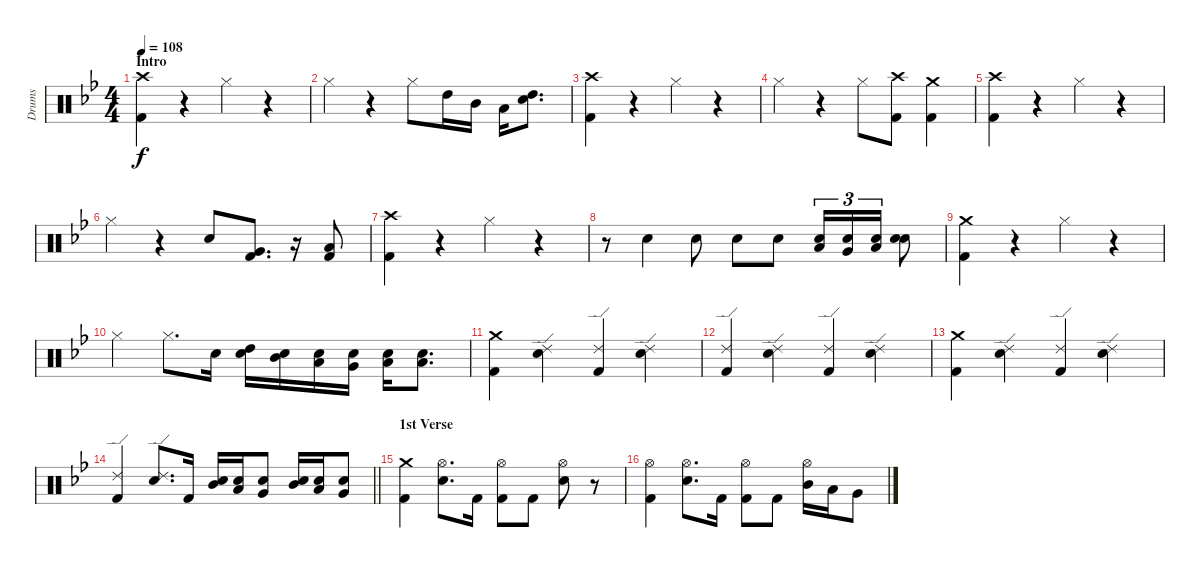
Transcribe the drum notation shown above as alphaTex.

\track ("Drums" "Drums") {instrument percussion}
\staff {score}
\articulation defaults
\ts (4 4)
\section ("" "Intro")
\tempo 108
\clef neutral
\ks gminor
("Crash high (hit)" "Kick (hit) 2").4{dy f} r.4 "Hi-Hat (closed)".4 r.4 |
"Hi-Hat (closed)".4 r.4 "Hi-Hat (closed)".8 "High Tom (hit)".16 "Mid Tom (hit)".16 "Low Tom (hit)".16 ("Snare (hit) 2" "High Tom (hit)").8{d} |
("Crash high (hit)" "Kick (hit) 2").4 r.4 "Hi-Hat (closed)".4 r.4 |
"Hi-Hat (closed)".4 r.4 "Hi-Hat (closed)".8 ("Crash high (hit)" "Kick (hit) 2").8 ("Crash medium (hit)" "Kick (hit) 2").4 |
("Crash high (hit)" "Kick (hit) 2").4 r.4 "Hi-Hat (closed)".4 r.4 |
"Hi-Hat (closed)".4 r.4 "Snare (hit) 2".8 ("Very Low Tom (hit)" "Kick (hit) 2").8{d} r.16 ("Low Floor Tom (hit)" "Kick (hit) 2").8 |
("Crash high (hit)" "Kick (hit) 2").4 r.4 "Hi-Hat (closed)".4 r.4 |
r.8 "Snare (hit) 2".4 "Snare (hit) 2".8 "Snare (hit) 2".8 "Snare (hit) 2".8 ("Snare (hit) 2" "Low Tom (hit)").16{tu (3 2)} ("Snare (hit) 2" "Very Low Tom (hit)").16{tu (3 2)} ("Snare (hit) 2" "Low Floor Tom (hit)").16{tu (3 2)} ("Snare (hit) 2" "Snare (hit) 2").8 |
("Crash medium (hit)" "Kick (hit) 2").4 r.4 "Hi-Hat (closed)".4 r.4 |
"Hi-Hat (closed)".4 "Hi-Hat (closed)".8{d} "Snare (hit) 2".16 ("Snare (hit) 2" "High Tom (hit)").16 ("Snare (hit) 2" "Mid Tom (hit)").16 ("Snare (hit) 2" "Low Tom (hit)").16 ("Snare (hit) 2" "Very Low Tom (hit)").16 ("Snare (hit) 2" "Low Floor Tom (hit)").16 ("Snare (hit) 2" "Low Floor Tom (hit)").8{d} |
("Crash medium (hit)" "Kick (hit) 2").4 ("Ride (edge) 2" "Snare (hit) 2").4 ("Ride (edge) 2" "Kick (hit) 2").4 ("Ride (edge) 2" "Snare (hit) 2").4 |
("Ride (edge) 2" "Kick (hit) 2").4 ("Ride (edge) 2" "Snare (hit) 2").4 ("Ride (edge) 2" "Kick (hit) 2").4 ("Ride (edge) 2" "Snare (hit) 2").4 |
("Crash medium (hit)" "Kick (hit) 2").4 ("Ride (edge) 2" "Snare (hit) 2").4 ("Ride (edge) 2" "Kick (hit) 2").4 ("Ride (edge) 2" "Snare (hit) 2").4 |
\barLineRight lightlight
("Ride (edge) 2" "Kick (hit) 2").4 ("Ride (edge) 2" "Snare (hit) 2").8{d} "Kick (hit) 2".16 ("Snare (hit) 2" "Mid Tom (hit)").16 ("Snare (hit) 2" "Low Tom (hit)").16 ("Snare (hit) 2" "Very Low Tom (hit)").8 ("Snare (hit) 2" "Mid Tom (hit)").16 ("Snare (hit) 2" "Low Tom (hit)").16 ("Snare (hit) 2" "Very Low Tom (hit)").8 |
\section ("" "1st Verse")
("Crash medium (hit)" "Kick (hit) 2").4 ("Hi-Hat (open)" "Snare (hit) 2").8{d} "Kick (hit) 2".16 ("Hi-Hat (open)" "Kick (hit) 2").8 "Kick (hit) 2".8 ("Hi-Hat (open)" "Snare (hit) 2").8 r.8 |
("Hi-Hat (open)" "Kick (hit) 2").4 ("Hi-Hat (open)" "Snare (hit) 2").8{d} "Kick (hit) 2".16 ("Hi-Hat (open)" "Kick (hit) 2").8 "Kick (hit) 2".8 ("Hi-Hat (open)" "Mid Tom (hit)").16 "Low Tom (hit)".16 "Very Low Tom (hit)".8
